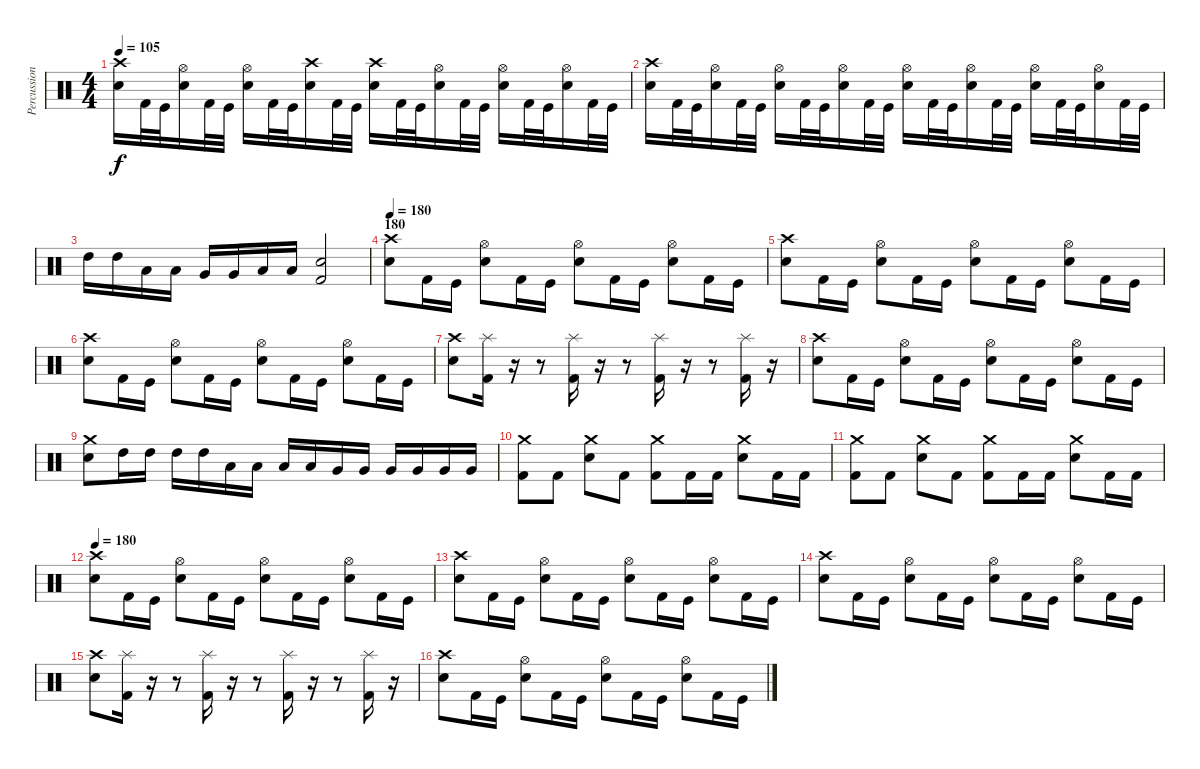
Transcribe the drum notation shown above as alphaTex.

\track ("Percussion" "Percussion") {instrument percussion}
\staff {score}
\articulation defaults
\ts (4 4)
\tempo 105
\clef neutral
\ks c
("Snare (hit) 2" "Crash high (hit)").16{dy f} "Kick (hit) 2".32 "Kick (hit)".32 ("Snare (hit) 2" "Hi-Hat (open)").16 "Kick (hit) 2".32 "Kick (hit)".32 ("Snare (hit) 2" "Hi-Hat (open)").16 "Kick (hit) 2".32 "Kick (hit)".32 ("Snare (hit) 2" "Crash high (hit)").16 "Kick (hit) 2".32 "Kick (hit)".32 ("Snare (hit) 2" "Crash high (hit)").16 "Kick (hit) 2".32 "Kick (hit)".32 ("Snare (hit) 2" "Hi-Hat (open)").16 "Kick (hit) 2".32 "Kick (hit)".32 ("Snare (hit) 2" "Hi-Hat (open)").16 "Kick (hit) 2".32 "Kick (hit)".32 ("Snare (hit) 2" "Hi-Hat (open)").16 "Kick (hit) 2".32 "Kick (hit)".32 |
("Snare (hit) 2" "Crash high (hit)").16 "Kick (hit) 2".32 "Kick (hit)".32 ("Snare (hit) 2" "Hi-Hat (open)").16 "Kick (hit) 2".32 "Kick (hit)".32 ("Snare (hit) 2" "Hi-Hat (open)").16 "Kick (hit) 2".32 "Kick (hit)".32 ("Snare (hit) 2" "Hi-Hat (open)").16 "Kick (hit) 2".32 "Kick (hit)".32 ("Snare (hit) 2" "Hi-Hat (open)").16 "Kick (hit) 2".32 "Kick (hit)".32 ("Snare (hit) 2" "Hi-Hat (open)").16 "Kick (hit) 2".32 "Kick (hit)".32 ("Snare (hit) 2" "Hi-Hat (open)").16 "Kick (hit) 2".32 "Kick (hit)".32 ("Snare (hit) 2" "Hi-Hat (open)").16 "Kick (hit) 2".32 "Kick (hit)".32 |
"High Tom (hit)".16 "High Tom (hit)".16 "Low Tom (hit)".16 "Low Tom (hit)".16 "Very Low Tom (hit)".16 "Very Low Tom (hit)".16 "Low Floor Tom (hit)".16 "Low Floor Tom (hit)".16 ("Snare (hit) 2" "Kick (hit) 2").2 |
\section ("" "180")
\tempo 180
("Snare (hit) 2" "Crash high (hit)").8 "Kick (hit) 2".16 "Kick (hit)".16 ("Snare (hit) 2" "Hi-Hat (open)").8 "Kick (hit) 2".16 "Kick (hit)".16 ("Snare (hit) 2" "Hi-Hat (open)").8 "Kick (hit) 2".16 "Kick (hit)".16 ("Snare (hit) 2" "Hi-Hat (open)").8 "Kick (hit) 2".16 "Kick (hit)".16 |
("Snare (hit) 2" "Crash high (hit)").8 "Kick (hit) 2".16 "Kick (hit)".16 ("Snare (hit) 2" "Hi-Hat (open)").8 "Kick (hit) 2".16 "Kick (hit)".16 ("Snare (hit) 2" "Hi-Hat (open)").8 "Kick (hit) 2".16 "Kick (hit)".16 ("Snare (hit) 2" "Hi-Hat (open)").8 "Kick (hit) 2".16 "Kick (hit)".16 |
("Snare (hit) 2" "Crash high (hit)").8 "Kick (hit) 2".16 "Kick (hit)".16 ("Snare (hit) 2" "Hi-Hat (open)").8 "Kick (hit) 2".16 "Kick (hit)".16 ("Snare (hit) 2" "Hi-Hat (open)").8 "Kick (hit) 2".16 "Kick (hit)".16 ("Snare (hit) 2" "Hi-Hat (open)").8 "Kick (hit) 2".16 "Kick (hit)".16 |
("Snare (hit) 2" "Crash high (hit)").8 ("Kick (hit) 2" "Splash (hit)").16 r.16 r.8 ("Kick (hit) 2" "Splash (hit)").16 r.16 r.8 ("Kick (hit) 2" "Splash (hit)").16 r.16 r.8 ("Kick (hit) 2" "Splash (hit)").16 r.16 |
("Snare (hit) 2" "Crash high (hit)").8 "Kick (hit) 2".16 "Kick (hit)".16 ("Snare (hit) 2" "Hi-Hat (open)").8 "Kick (hit) 2".16 "Kick (hit)".16 ("Snare (hit) 2" "Hi-Hat (open)").8 "Kick (hit) 2".16 "Kick (hit)".16 ("Snare (hit) 2" "Hi-Hat (open)").8 "Kick (hit) 2".16 "Kick (hit)".16 |
("Snare (hit) 2" "Crash medium (hit)").8 "High Tom (hit)".16 "High Tom (hit)".16 "High Tom (hit)".16 "High Tom (hit)".16 "Low Tom (hit)".16 "Low Tom (hit)".16 "Low Tom (hit)".16 "Low Tom (hit)".16 "Very Low Tom (hit)".16 "Very Low Tom (hit)".16 "Very Low Tom (hit)".16 "Very Low Tom (hit)".16 "Very Low Tom (hit)".16 "Very Low Tom (hit)".16 |
("Kick (hit) 2" "Crash medium (hit)").8 "Kick (hit) 2".8 ("Snare (hit) 2" "Crash medium (hit)").8 "Kick (hit) 2".8 ("Kick (hit) 2" "Crash medium (hit)").8 "Kick (hit) 2".16 "Kick (hit) 2".16 ("Snare (hit) 2" "Crash medium (hit)").8 "Kick (hit) 2".16 "Kick (hit) 2".16 |
("Kick (hit) 2" "Crash medium (hit)").8 "Kick (hit) 2".8 ("Snare (hit) 2" "Crash medium (hit)").8 "Kick (hit) 2".8 ("Kick (hit) 2" "Crash medium (hit)").8 "Kick (hit) 2".16 "Kick (hit) 2".16 ("Snare (hit) 2" "Crash medium (hit)").8 "Kick (hit) 2".16 "Kick (hit) 2".16 |
\tempo 180
("Snare (hit) 2" "Crash high (hit)").8 "Kick (hit) 2".16 "Kick (hit)".16 ("Snare (hit) 2" "Hi-Hat (open)").8 "Kick (hit) 2".16 "Kick (hit)".16 ("Snare (hit) 2" "Hi-Hat (open)").8 "Kick (hit) 2".16 "Kick (hit)".16 ("Snare (hit) 2" "Hi-Hat (open)").8 "Kick (hit) 2".16 "Kick (hit)".16 |
("Snare (hit) 2" "Crash high (hit)").8 "Kick (hit) 2".16 "Kick (hit)".16 ("Snare (hit) 2" "Hi-Hat (open)").8 "Kick (hit) 2".16 "Kick (hit)".16 ("Snare (hit) 2" "Hi-Hat (open)").8 "Kick (hit) 2".16 "Kick (hit)".16 ("Snare (hit) 2" "Hi-Hat (open)").8 "Kick (hit) 2".16 "Kick (hit)".16 |
("Snare (hit) 2" "Crash high (hit)").8 "Kick (hit) 2".16 "Kick (hit)".16 ("Snare (hit) 2" "Hi-Hat (open)").8 "Kick (hit) 2".16 "Kick (hit)".16 ("Snare (hit) 2" "Hi-Hat (open)").8 "Kick (hit) 2".16 "Kick (hit)".16 ("Snare (hit) 2" "Hi-Hat (open)").8 "Kick (hit) 2".16 "Kick (hit)".16 |
("Snare (hit) 2" "Crash high (hit)").8 ("Kick (hit) 2" "Splash (hit)").16 r.16 r.8 ("Kick (hit) 2" "Splash (hit)").16 r.16 r.8 ("Kick (hit) 2" "Splash (hit)").16 r.16 r.8 ("Kick (hit) 2" "Splash (hit)").16 r.16 |
("Snare (hit) 2" "Crash high (hit)").8 "Kick (hit) 2".16 "Kick (hit)".16 ("Snare (hit) 2" "Hi-Hat (open)").8 "Kick (hit) 2".16 "Kick (hit)".16 ("Snare (hit) 2" "Hi-Hat (open)").8 "Kick (hit) 2".16 "Kick (hit)".16 ("Snare (hit) 2" "Hi-Hat (open)").8 "Kick (hit) 2".16 "Kick (hit)".16
